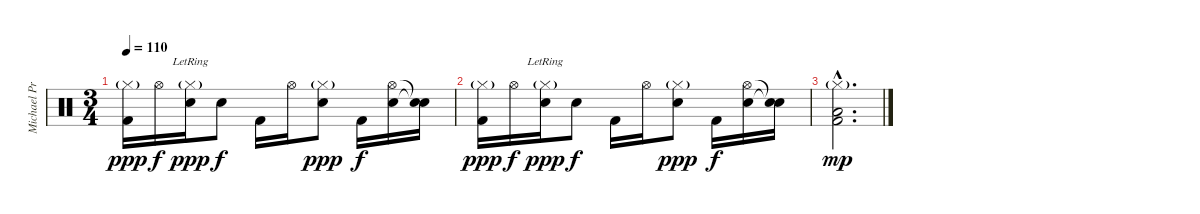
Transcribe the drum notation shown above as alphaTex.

\track ("Michael Prain - Drums" "Michael Pr") {instrument percussion}
\staff {score}
\articulation defaults
\ts (3 4)
\tempo 110
\clef neutral
\ks c
("Hi-Hat (closed)"{g} "Kick (hit) 2").16{dy ppp} "Hi-Hat (open)".16{dy f} ("Hi-Hat (closed)"{g lr} "Electric Snare (hit)").16{dy ppp} "Electric Snare (hit)".8{dy f} "Kick (hit) 2".16 "Hi-Hat (open)".16 ("Hi-Hat (closed)"{g} "Electric Snare (hit)").8{dy ppp} "Kick (hit) 2".16{dy f} ("Hi-Hat (open)" "Electric Snare (hit)").16 ("Snare (hit)"{t} "Snare (hit)"{t}).16 |
("Hi-Hat (closed)"{g} "Kick (hit) 2").16{dy ppp} "Hi-Hat (open)".16{dy f} ("Hi-Hat (closed)"{g lr} "Electric Snare (hit)").16{dy ppp} "Electric Snare (hit)".8{dy f} "Kick (hit) 2".16 "Hi-Hat (open)".16 ("Hi-Hat (closed)"{g} "Electric Snare (hit)").8{dy ppp} "Kick (hit) 2".16{dy f} ("Hi-Hat (open)" "Electric Snare (hit)").16 ("Snare (hit)"{t} "Snare (hit)"{t}).16 |
("Hi-Hat (closed)"{g hac} "Low Floor Tom (hit)"{hac} "Kick (hit) 2"{hac}).2{d dy mp}
